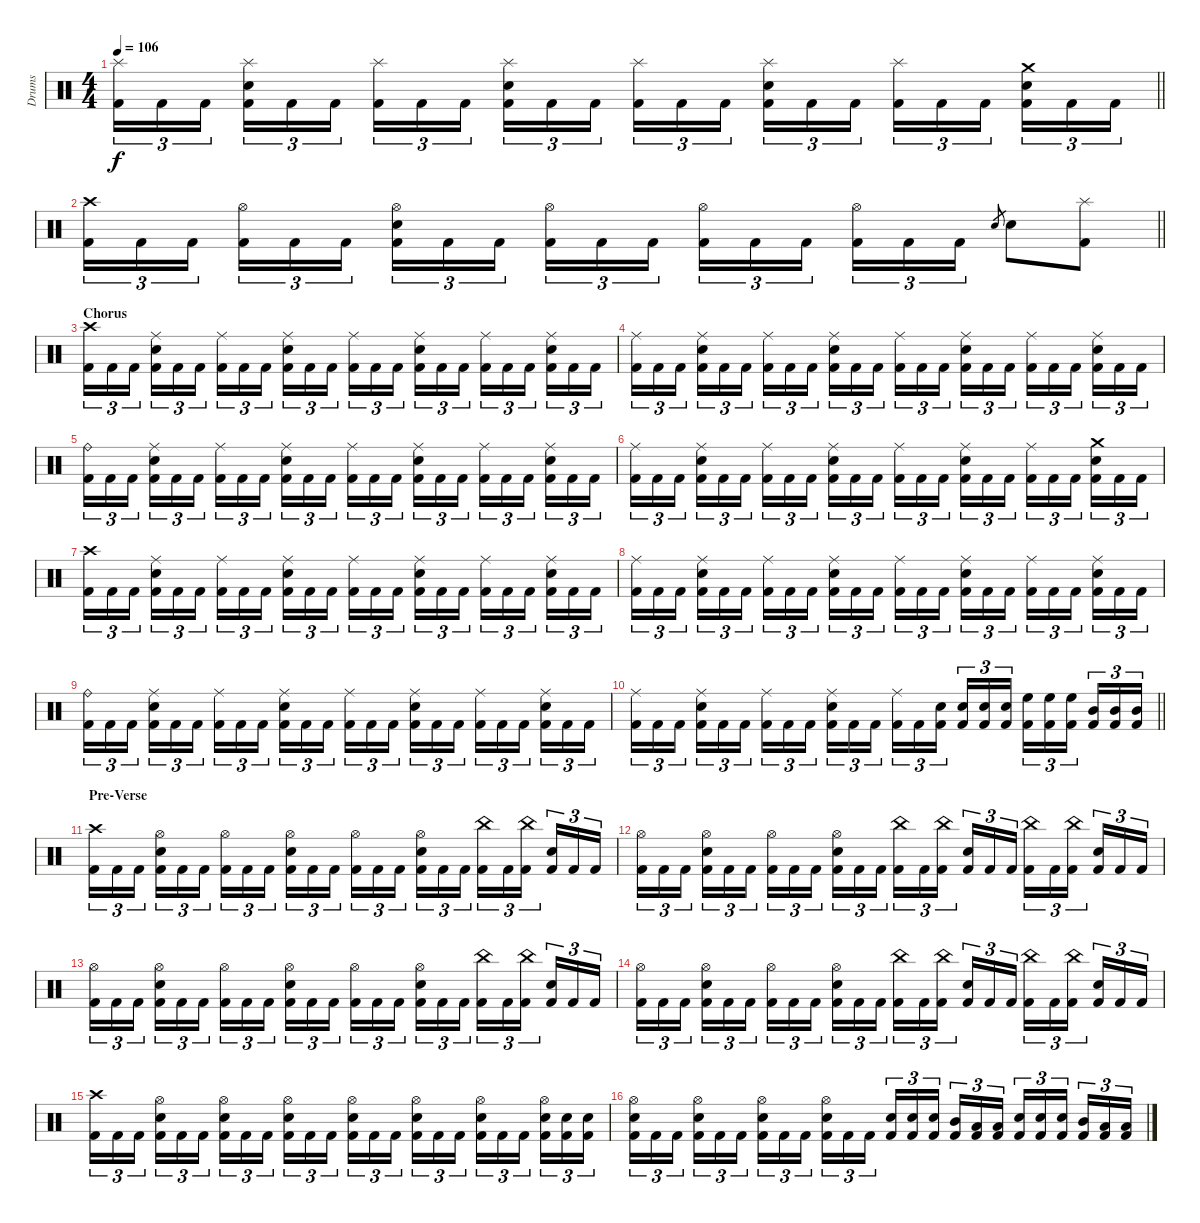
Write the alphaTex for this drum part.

\track ("Drums" "Drums") {instrument percussion}
\staff {score}
\articulation defaults
\ts (4 4)
\tempo 106
\clef neutral
\barLineRight lightlight
\ks c
("Splash (hit)" "Kick (hit) 2").16{tu (3 2) dy f} "Kick (hit) 2".16{tu (3 2)} "Kick (hit) 2".16{tu (3 2)} ("Splash (hit)" "Electric Snare (hit)" "Kick (hit) 2").16{tu (3 2)} "Kick (hit) 2".16{tu (3 2)} "Kick (hit) 2".16{tu (3 2)} ("Splash (hit)" "Kick (hit) 2").16{tu (3 2)} "Kick (hit) 2".16{tu (3 2)} "Kick (hit) 2".16{tu (3 2)} ("Splash (hit)" "Electric Snare (hit)" "Kick (hit) 2").16{tu (3 2)} "Kick (hit) 2".16{tu (3 2)} "Kick (hit) 2".16{tu (3 2)} ("Splash (hit)" "Kick (hit) 2").16{tu (3 2)} "Kick (hit) 2".16{tu (3 2)} "Kick (hit) 2".16{tu (3 2)} ("Splash (hit)" "Electric Snare (hit)" "Kick (hit) 2").16{tu (3 2)} "Kick (hit) 2".16{tu (3 2)} "Kick (hit) 2".16{tu (3 2)} ("Splash (hit)" "Kick (hit) 2").16{tu (3 2)} "Kick (hit) 2".16{tu (3 2)} "Kick (hit) 2".16{tu (3 2)} ("Crash medium (hit)" "Electric Snare (hit)" "Kick (hit) 2").16{tu (3 2)} "Kick (hit) 2".16{tu (3 2)} "Kick (hit) 2".16{tu (3 2)} |
\section ("" "")
\barLineRight lightlight
("Crash high (hit)" "Kick (hit) 2").16{tu (3 2)} "Kick (hit) 2".16{tu (3 2)} "Kick (hit) 2".16{tu (3 2)} ("Hi-Hat (open)" "Kick (hit) 2").16{tu (3 2)} "Kick (hit) 2".16{tu (3 2)} "Kick (hit) 2".16{tu (3 2)} ("Hi-Hat (open)" "Electric Snare (hit)" "Kick (hit) 2").16{tu (3 2)} "Kick (hit) 2".16{tu (3 2)} "Kick (hit) 2".16{tu (3 2)} ("Hi-Hat (open)" "Kick (hit) 2").16{tu (3 2)} "Kick (hit) 2".16{tu (3 2)} "Kick (hit) 2".16{tu (3 2)} ("Hi-Hat (open)" "Kick (hit) 2").16{tu (3 2)} "Kick (hit) 2".16{tu (3 2)} "Kick (hit) 2".16{tu (3 2)} ("Hi-Hat (open)" "Kick (hit) 2").16{tu (3 2)} "Kick (hit) 2".16{tu (3 2)} "Kick (hit) 2".16{tu (3 2)} "Electric Snare (hit)".8{gr} "Electric Snare (hit)".8 ("Splash (hit)" "Kick (hit) 2").8 |
\section ("" "Chorus")
("Crash high (hit)" "Kick (hit) 2").16{tu (3 2)} "Kick (hit) 2".16{tu (3 2)} "Kick (hit) 2".16{tu (3 2)} ("Ride (middle)" "Electric Snare (hit)" "Kick (hit) 2").16{tu (3 2)} "Kick (hit) 2".16{tu (3 2)} "Kick (hit) 2".16{tu (3 2)} ("Ride (middle)" "Kick (hit) 2").16{tu (3 2)} "Kick (hit) 2".16{tu (3 2)} "Kick (hit) 2".16{tu (3 2)} ("Ride (middle)" "Electric Snare (hit)" "Kick (hit) 2").16{tu (3 2)} "Kick (hit) 2".16{tu (3 2)} "Kick (hit) 2".16{tu (3 2)} ("Ride (middle)" "Kick (hit) 2").16{tu (3 2)} "Kick (hit) 2".16{tu (3 2)} "Kick (hit) 2".16{tu (3 2)} ("Ride (middle)" "Electric Snare (hit)" "Kick (hit) 2").16{tu (3 2)} "Kick (hit) 2".16{tu (3 2)} "Kick (hit) 2".16{tu (3 2)} ("Ride (middle)" "Kick (hit) 2").16{tu (3 2)} "Kick (hit) 2".16{tu (3 2)} "Kick (hit) 2".16{tu (3 2)} ("Ride (middle)" "Electric Snare (hit)" "Kick (hit) 2").16{tu (3 2)} "Kick (hit) 2".16{tu (3 2)} "Kick (hit) 2".16{tu (3 2)} |
("Ride (middle)" "Kick (hit) 2").16{tu (3 2)} "Kick (hit) 2".16{tu (3 2)} "Kick (hit) 2".16{tu (3 2)} ("Ride (middle)" "Electric Snare (hit)" "Kick (hit) 2").16{tu (3 2)} "Kick (hit) 2".16{tu (3 2)} "Kick (hit) 2".16{tu (3 2)} ("Ride (middle)" "Kick (hit) 2").16{tu (3 2)} "Kick (hit) 2".16{tu (3 2)} "Kick (hit) 2".16{tu (3 2)} ("Ride (middle)" "Electric Snare (hit)" "Kick (hit) 2").16{tu (3 2)} "Kick (hit) 2".16{tu (3 2)} "Kick (hit) 2".16{tu (3 2)} ("Ride (middle)" "Kick (hit) 2").16{tu (3 2)} "Kick (hit) 2".16{tu (3 2)} "Kick (hit) 2".16{tu (3 2)} ("Ride (middle)" "Electric Snare (hit)" "Kick (hit) 2").16{tu (3 2)} "Kick (hit) 2".16{tu (3 2)} "Kick (hit) 2".16{tu (3 2)} ("Ride (middle)" "Kick (hit) 2").16{tu (3 2)} "Kick (hit) 2".16{tu (3 2)} "Kick (hit) 2".16{tu (3 2)} ("Ride (middle)" "Electric Snare (hit)" "Kick (hit) 2").16{tu (3 2)} "Kick (hit) 2".16{tu (3 2)} "Kick (hit) 2".16{tu (3 2)} |
("Ride (bell)" "Kick (hit) 2").16{tu (3 2)} "Kick (hit) 2".16{tu (3 2)} "Kick (hit) 2".16{tu (3 2)} ("Ride (middle)" "Electric Snare (hit)" "Kick (hit) 2").16{tu (3 2)} "Kick (hit) 2".16{tu (3 2)} "Kick (hit) 2".16{tu (3 2)} ("Ride (middle)" "Kick (hit) 2").16{tu (3 2)} "Kick (hit) 2".16{tu (3 2)} "Kick (hit) 2".16{tu (3 2)} ("Ride (middle)" "Electric Snare (hit)" "Kick (hit) 2").16{tu (3 2)} "Kick (hit) 2".16{tu (3 2)} "Kick (hit) 2".16{tu (3 2)} ("Ride (middle)" "Kick (hit) 2").16{tu (3 2)} "Kick (hit) 2".16{tu (3 2)} "Kick (hit) 2".16{tu (3 2)} ("Ride (middle)" "Electric Snare (hit)" "Kick (hit) 2").16{tu (3 2)} "Kick (hit) 2".16{tu (3 2)} "Kick (hit) 2".16{tu (3 2)} ("Ride (middle)" "Kick (hit) 2").16{tu (3 2)} "Kick (hit) 2".16{tu (3 2)} "Kick (hit) 2".16{tu (3 2)} ("Ride (middle)" "Electric Snare (hit)" "Kick (hit) 2").16{tu (3 2)} "Kick (hit) 2".16{tu (3 2)} "Kick (hit) 2".16{tu (3 2)} |
("Ride (middle)" "Kick (hit) 2").16{tu (3 2)} "Kick (hit) 2".16{tu (3 2)} "Kick (hit) 2".16{tu (3 2)} ("Ride (middle)" "Electric Snare (hit)" "Kick (hit) 2").16{tu (3 2)} "Kick (hit) 2".16{tu (3 2)} "Kick (hit) 2".16{tu (3 2)} ("Ride (middle)" "Kick (hit) 2").16{tu (3 2)} "Kick (hit) 2".16{tu (3 2)} "Kick (hit) 2".16{tu (3 2)} ("Ride (middle)" "Electric Snare (hit)" "Kick (hit) 2").16{tu (3 2)} "Kick (hit) 2".16{tu (3 2)} "Kick (hit) 2".16{tu (3 2)} ("Ride (middle)" "Kick (hit) 2").16{tu (3 2)} "Kick (hit) 2".16{tu (3 2)} "Kick (hit) 2".16{tu (3 2)} ("Ride (middle)" "Electric Snare (hit)" "Kick (hit) 2").16{tu (3 2)} "Kick (hit) 2".16{tu (3 2)} "Kick (hit) 2".16{tu (3 2)} ("Ride (middle)" "Kick (hit) 2").16{tu (3 2)} "Kick (hit) 2".16{tu (3 2)} "Kick (hit) 2".16{tu (3 2)} ("Crash medium (hit)" "Electric Snare (hit)" "Kick (hit) 2").16{tu (3 2)} "Kick (hit) 2".16{tu (3 2)} "Kick (hit) 2".16{tu (3 2)} |
("Crash high (hit)" "Kick (hit) 2").16{tu (3 2)} "Kick (hit) 2".16{tu (3 2)} "Kick (hit) 2".16{tu (3 2)} ("Ride (middle)" "Electric Snare (hit)" "Kick (hit) 2").16{tu (3 2)} "Kick (hit) 2".16{tu (3 2)} "Kick (hit) 2".16{tu (3 2)} ("Ride (middle)" "Kick (hit) 2").16{tu (3 2)} "Kick (hit) 2".16{tu (3 2)} "Kick (hit) 2".16{tu (3 2)} ("Ride (middle)" "Electric Snare (hit)" "Kick (hit) 2").16{tu (3 2)} "Kick (hit) 2".16{tu (3 2)} "Kick (hit) 2".16{tu (3 2)} ("Ride (middle)" "Kick (hit) 2").16{tu (3 2)} "Kick (hit) 2".16{tu (3 2)} "Kick (hit) 2".16{tu (3 2)} ("Ride (middle)" "Electric Snare (hit)" "Kick (hit) 2").16{tu (3 2)} "Kick (hit) 2".16{tu (3 2)} "Kick (hit) 2".16{tu (3 2)} ("Ride (middle)" "Kick (hit) 2").16{tu (3 2)} "Kick (hit) 2".16{tu (3 2)} "Kick (hit) 2".16{tu (3 2)} ("Ride (middle)" "Electric Snare (hit)" "Kick (hit) 2").16{tu (3 2)} "Kick (hit) 2".16{tu (3 2)} "Kick (hit) 2".16{tu (3 2)} |
("Ride (middle)" "Kick (hit) 2").16{tu (3 2)} "Kick (hit) 2".16{tu (3 2)} "Kick (hit) 2".16{tu (3 2)} ("Ride (middle)" "Electric Snare (hit)" "Kick (hit) 2").16{tu (3 2)} "Kick (hit) 2".16{tu (3 2)} "Kick (hit) 2".16{tu (3 2)} ("Ride (middle)" "Kick (hit) 2").16{tu (3 2)} "Kick (hit) 2".16{tu (3 2)} "Kick (hit) 2".16{tu (3 2)} ("Ride (middle)" "Electric Snare (hit)" "Kick (hit) 2").16{tu (3 2)} "Kick (hit) 2".16{tu (3 2)} "Kick (hit) 2".16{tu (3 2)} ("Ride (middle)" "Kick (hit) 2").16{tu (3 2)} "Kick (hit) 2".16{tu (3 2)} "Kick (hit) 2".16{tu (3 2)} ("Ride (middle)" "Electric Snare (hit)" "Kick (hit) 2").16{tu (3 2)} "Kick (hit) 2".16{tu (3 2)} "Kick (hit) 2".16{tu (3 2)} ("Ride (middle)" "Kick (hit) 2").16{tu (3 2)} "Kick (hit) 2".16{tu (3 2)} "Kick (hit) 2".16{tu (3 2)} ("Ride (middle)" "Electric Snare (hit)" "Kick (hit) 2").16{tu (3 2)} "Kick (hit) 2".16{tu (3 2)} "Kick (hit) 2".16{tu (3 2)} |
("Ride (bell)" "Kick (hit) 2").16{tu (3 2)} "Kick (hit) 2".16{tu (3 2)} "Kick (hit) 2".16{tu (3 2)} ("Ride (middle)" "Electric Snare (hit)" "Kick (hit) 2").16{tu (3 2)} "Kick (hit) 2".16{tu (3 2)} "Kick (hit) 2".16{tu (3 2)} ("Ride (middle)" "Kick (hit) 2").16{tu (3 2)} "Kick (hit) 2".16{tu (3 2)} "Kick (hit) 2".16{tu (3 2)} ("Ride (middle)" "Electric Snare (hit)" "Kick (hit) 2").16{tu (3 2)} "Kick (hit) 2".16{tu (3 2)} "Kick (hit) 2".16{tu (3 2)} ("Ride (middle)" "Kick (hit) 2").16{tu (3 2)} "Kick (hit) 2".16{tu (3 2)} "Kick (hit) 2".16{tu (3 2)} ("Ride (middle)" "Electric Snare (hit)" "Kick (hit) 2").16{tu (3 2)} "Kick (hit) 2".16{tu (3 2)} "Kick (hit) 2".16{tu (3 2)} ("Ride (middle)" "Kick (hit) 2").16{tu (3 2)} "Kick (hit) 2".16{tu (3 2)} "Kick (hit) 2".16{tu (3 2)} ("Ride (middle)" "Electric Snare (hit)" "Kick (hit) 2").16{tu (3 2)} "Kick (hit) 2".16{tu (3 2)} "Kick (hit) 2".16{tu (3 2)} |
\barLineRight lightlight
("Ride (middle)" "Kick (hit) 2").16{tu (3 2)} "Kick (hit) 2".16{tu (3 2)} "Kick (hit) 2".16{tu (3 2)} ("Ride (middle)" "Electric Snare (hit)" "Kick (hit) 2").16{tu (3 2)} "Kick (hit) 2".16{tu (3 2)} "Kick (hit) 2".16{tu (3 2)} ("Ride (middle)" "Kick (hit) 2").16{tu (3 2)} "Kick (hit) 2".16{tu (3 2)} "Kick (hit) 2".16{tu (3 2)} ("Ride (middle)" "Electric Snare (hit)" "Kick (hit) 2").16{tu (3 2)} "Kick (hit) 2".16{tu (3 2)} "Kick (hit) 2".16{tu (3 2)} ("Ride (middle)" "Kick (hit) 2").16{tu (3 2)} "Kick (hit) 2".16{tu (3 2)} ("Electric Snare (hit)" "Kick (hit) 2").16{tu (3 2)} ("Electric Snare (hit)" "Kick (hit) 2").16{tu (3 2)} ("Electric Snare (hit)" "Kick (hit) 2").16{tu (3 2)} ("Electric Snare (hit)" "Kick (hit) 2").16{tu (3 2)} ("High Floor Tom (hit)" "Kick (hit) 2").16{tu (3 2)} ("High Floor Tom (hit)" "Kick (hit) 2").16{tu (3 2)} ("High Floor Tom (hit)" "Kick (hit) 2").16{tu (3 2)} ("Mid Tom (hit)" "Kick (hit) 2").16{tu (3 2)} ("Mid Tom (hit)" "Kick (hit) 2").16{tu (3 2)} ("Mid Tom (hit)" "Kick (hit) 2").16{tu (3 2)} |
\section ("" "Pre-Verse")
("Crash high (hit)" "Kick (hit) 2").16{tu (3 2)} "Kick (hit) 2".16{tu (3 2)} "Kick (hit) 2".16{tu (3 2)} ("Hi-Hat (open)" "Electric Snare (hit)" "Kick (hit) 2").16{tu (3 2)} "Kick (hit) 2".16{tu (3 2)} "Kick (hit) 2".16{tu (3 2)} ("Hi-Hat (open)" "Kick (hit) 2").16{tu (3 2)} "Kick (hit) 2".16{tu (3 2)} "Kick (hit) 2".16{tu (3 2)} ("Hi-Hat (open)" "Electric Snare (hit)" "Kick (hit) 2").16{tu (3 2)} "Kick (hit) 2".16{tu (3 2)} "Kick (hit) 2".16{tu (3 2)} ("Hi-Hat (open)" "Kick (hit) 2").16{tu (3 2)} "Kick (hit) 2".16{tu (3 2)} "Kick (hit) 2".16{tu (3 2)} ("Hi-Hat (open)" "Electric Snare (hit)" "Kick (hit) 2").16{tu (3 2)} "Kick (hit) 2".16{tu (3 2)} "Kick (hit) 2".16{tu (3 2)} ("China (hit)" "Kick (hit) 2").16{tu (3 2)} "Kick (hit) 2".16{tu (3 2)} ("China (hit)" "Kick (hit) 2").16{tu (3 2)} ("Electric Snare (hit)" "Kick (hit) 2").16{tu (3 2)} "Kick (hit) 2".16{tu (3 2)} "Kick (hit) 2".16{tu (3 2)} |
("Hi-Hat (open)" "Kick (hit) 2").16{tu (3 2)} "Kick (hit) 2".16{tu (3 2)} "Kick (hit) 2".16{tu (3 2)} ("Hi-Hat (open)" "Electric Snare (hit)" "Kick (hit) 2").16{tu (3 2)} "Kick (hit) 2".16{tu (3 2)} "Kick (hit) 2".16{tu (3 2)} ("Hi-Hat (open)" "Kick (hit) 2").16{tu (3 2)} "Kick (hit) 2".16{tu (3 2)} "Kick (hit) 2".16{tu (3 2)} ("Hi-Hat (open)" "Electric Snare (hit)" "Kick (hit) 2").16{tu (3 2)} "Kick (hit) 2".16{tu (3 2)} "Kick (hit) 2".16{tu (3 2)} ("China (hit)" "Kick (hit) 2").16{tu (3 2)} "Kick (hit) 2".16{tu (3 2)} ("China (hit)" "Kick (hit) 2").16{tu (3 2)} ("Electric Snare (hit)" "Kick (hit) 2").16{tu (3 2)} "Kick (hit) 2".16{tu (3 2)} "Kick (hit) 2".16{tu (3 2)} ("China (hit)" "Kick (hit) 2").16{tu (3 2)} "Kick (hit) 2".16{tu (3 2)} ("China (hit)" "Kick (hit) 2").16{tu (3 2)} ("Electric Snare (hit)" "Kick (hit) 2").16{tu (3 2)} "Kick (hit) 2".16{tu (3 2)} "Kick (hit) 2".16{tu (3 2)} |
("Hi-Hat (open)" "Kick (hit) 2").16{tu (3 2)} "Kick (hit) 2".16{tu (3 2)} "Kick (hit) 2".16{tu (3 2)} ("Hi-Hat (open)" "Electric Snare (hit)" "Kick (hit) 2").16{tu (3 2)} "Kick (hit) 2".16{tu (3 2)} "Kick (hit) 2".16{tu (3 2)} ("Hi-Hat (open)" "Kick (hit) 2").16{tu (3 2)} "Kick (hit) 2".16{tu (3 2)} "Kick (hit) 2".16{tu (3 2)} ("Hi-Hat (open)" "Electric Snare (hit)" "Kick (hit) 2").16{tu (3 2)} "Kick (hit) 2".16{tu (3 2)} "Kick (hit) 2".16{tu (3 2)} ("Hi-Hat (open)" "Kick (hit) 2").16{tu (3 2)} "Kick (hit) 2".16{tu (3 2)} "Kick (hit) 2".16{tu (3 2)} ("Hi-Hat (open)" "Electric Snare (hit)" "Kick (hit) 2").16{tu (3 2)} "Kick (hit) 2".16{tu (3 2)} "Kick (hit) 2".16{tu (3 2)} ("China (hit)" "Kick (hit) 2").16{tu (3 2)} "Kick (hit) 2".16{tu (3 2)} ("China (hit)" "Kick (hit) 2").16{tu (3 2)} ("Electric Snare (hit)" "Kick (hit) 2").16{tu (3 2)} "Kick (hit) 2".16{tu (3 2)} "Kick (hit) 2".16{tu (3 2)} |
("Hi-Hat (open)" "Kick (hit) 2").16{tu (3 2)} "Kick (hit) 2".16{tu (3 2)} "Kick (hit) 2".16{tu (3 2)} ("Hi-Hat (open)" "Electric Snare (hit)" "Kick (hit) 2").16{tu (3 2)} "Kick (hit) 2".16{tu (3 2)} "Kick (hit) 2".16{tu (3 2)} ("Hi-Hat (open)" "Kick (hit) 2").16{tu (3 2)} "Kick (hit) 2".16{tu (3 2)} "Kick (hit) 2".16{tu (3 2)} ("Hi-Hat (open)" "Electric Snare (hit)" "Kick (hit) 2").16{tu (3 2)} "Kick (hit) 2".16{tu (3 2)} "Kick (hit) 2".16{tu (3 2)} ("China (hit)" "Kick (hit) 2").16{tu (3 2)} "Kick (hit) 2".16{tu (3 2)} ("China (hit)" "Kick (hit) 2").16{tu (3 2)} ("Electric Snare (hit)" "Kick (hit) 2").16{tu (3 2)} "Kick (hit) 2".16{tu (3 2)} "Kick (hit) 2".16{tu (3 2)} ("China (hit)" "Kick (hit) 2").16{tu (3 2)} "Kick (hit) 2".16{tu (3 2)} ("China (hit)" "Kick (hit) 2").16{tu (3 2)} ("Electric Snare (hit)" "Kick (hit) 2").16{tu (3 2)} "Kick (hit) 2".16{tu (3 2)} "Kick (hit) 2".16{tu (3 2)} |
("Crash high (hit)" "Kick (hit) 2").16{tu (3 2)} "Kick (hit) 2".16{tu (3 2)} "Kick (hit) 2".16{tu (3 2)} ("Hi-Hat (open)" "Electric Snare (hit)" "Kick (hit) 2").16{tu (3 2)} "Kick (hit) 2".16{tu (3 2)} "Kick (hit) 2".16{tu (3 2)} ("Hi-Hat (open)" "Electric Snare (hit)" "Kick (hit) 2").16{tu (3 2)} "Kick (hit) 2".16{tu (3 2)} "Kick (hit) 2".16{tu (3 2)} ("Hi-Hat (open)" "Electric Snare (hit)" "Kick (hit) 2").16{tu (3 2)} "Kick (hit) 2".16{tu (3 2)} "Kick (hit) 2".16{tu (3 2)} ("Hi-Hat (open)" "Electric Snare (hit)" "Kick (hit) 2").16{tu (3 2)} "Kick (hit) 2".16{tu (3 2)} "Kick (hit) 2".16{tu (3 2)} ("Hi-Hat (open)" "Electric Snare (hit)" "Kick (hit) 2").16{tu (3 2)} "Kick (hit) 2".16{tu (3 2)} "Kick (hit) 2".16{tu (3 2)} ("Hi-Hat (open)" "Electric Snare (hit)" "Kick (hit) 2").16{tu (3 2)} "Kick (hit) 2".16{tu (3 2)} "Kick (hit) 2".16{tu (3 2)} ("Hi-Hat (open)" "Electric Snare (hit)" "Kick (hit) 2").16{tu (3 2)} ("Electric Snare (hit)" "Kick (hit) 2").16{tu (3 2)} ("Electric Snare (hit)" "Kick (hit) 2").16{tu (3 2)} |
("Hi-Hat (open)" "Electric Snare (hit)" "Kick (hit) 2").16{tu (3 2)} "Kick (hit) 2".16{tu (3 2)} "Kick (hit) 2".16{tu (3 2)} ("Hi-Hat (open)" "Electric Snare (hit)" "Kick (hit) 2").16{tu (3 2)} "Kick (hit) 2".16{tu (3 2)} "Kick (hit) 2".16{tu (3 2)} ("Hi-Hat (open)" "Electric Snare (hit)" "Kick (hit) 2").16{tu (3 2)} "Kick (hit) 2".16{tu (3 2)} "Kick (hit) 2".16{tu (3 2)} ("Hi-Hat (open)" "Electric Snare (hit)" "Kick (hit) 2").16{tu (3 2)} "Kick (hit) 2".16{tu (3 2)} "Kick (hit) 2".16{tu (3 2)} ("Electric Snare (hit)" "Kick (hit) 2").16{tu (3 2)} ("Electric Snare (hit)" "Kick (hit) 2").16{tu (3 2)} ("Electric Snare (hit)" "Kick (hit) 2").16{tu (3 2)} ("Mid Tom (hit)" "Kick (hit) 2").16{tu (3 2)} ("Low Tom (hit)" "Kick (hit) 2").16{tu (3 2)} ("Low Tom (hit)" "Kick (hit) 2").16{tu (3 2)} ("Electric Snare (hit)" "Kick (hit) 2").16{tu (3 2)} ("Electric Snare (hit)" "Kick (hit) 2").16{tu (3 2)} ("Electric Snare (hit)" "Kick (hit) 2").16{tu (3 2)} ("Mid Tom (hit)" "Kick (hit) 2").16{tu (3 2)} ("Low Tom (hit)" "Kick (hit) 2").16{tu (3 2)} ("Low Tom (hit)" "Kick (hit) 2").16{tu (3 2)}
